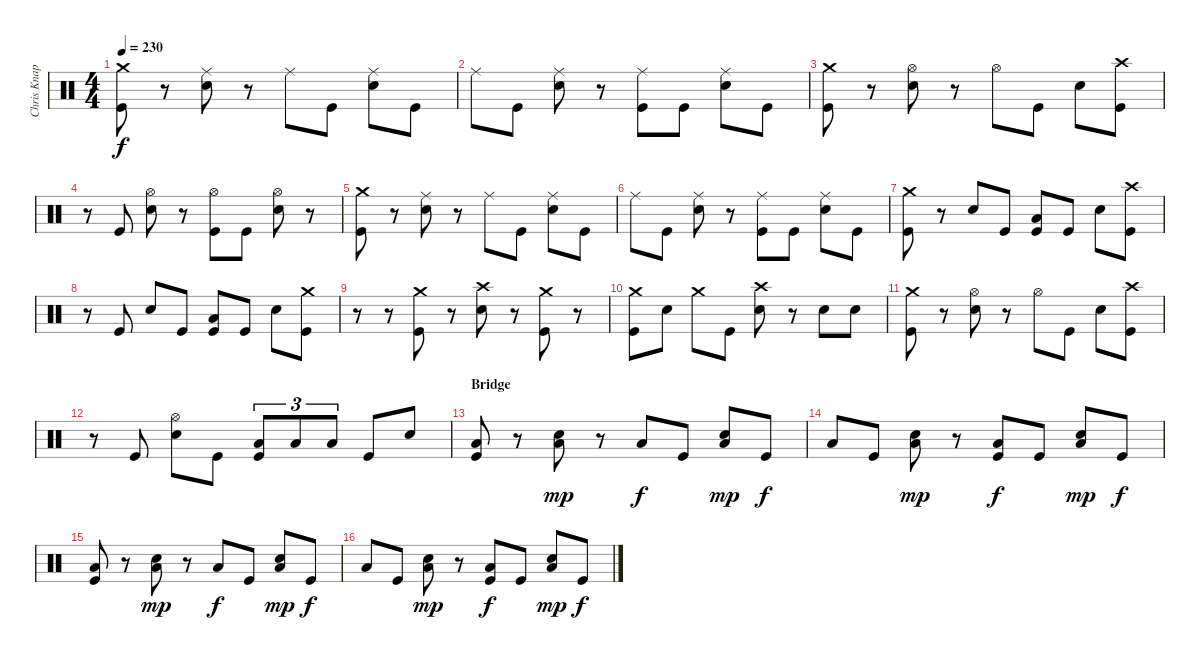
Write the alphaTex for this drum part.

\track ("Chris Knapp" "Chris Knap") {instrument percussion}
\staff {score}
\articulation defaults
\ts (4 4)
\tempo 230
\clef neutral
\ks c
("Crash medium (hit)" "Kick (hit)").8{dy f} r.8 ("Ride (middle)" "Electric Snare (hit)").8 r.8 "Ride (middle)".8 "Kick (hit)".8 ("Ride (middle)" "Electric Snare (hit)").8 "Kick (hit)".8 |
"Ride (middle)".8 "Kick (hit)".8 ("Ride (middle)" "Electric Snare (hit)").8 r.8 ("Ride (middle)" "Kick (hit)").8 "Kick (hit)".8 ("Ride (middle)" "Electric Snare (hit)").8 "Kick (hit)".8 |
("Crash medium (hit)" "Kick (hit)").8 r.8 ("Hi-Hat (open)" "Electric Snare (hit)").8 r.8 "Hi-Hat (open)".8 "Kick (hit)".8 "Electric Snare (hit)".8 ("Crash high (hit)" "Kick (hit)").8 |
r.8 "Kick (hit)".8 ("Hi-Hat (open)" "Electric Snare (hit)").8 r.8 ("Hi-Hat (open)" "Kick (hit)").8 "Kick (hit)".8 ("Hi-Hat (open)" "Electric Snare (hit)").8 r.8 |
("Crash medium (hit)" "Kick (hit)").8 r.8 ("Ride (middle)" "Electric Snare (hit)").8 r.8 "Ride (middle)".8 "Kick (hit)".8 ("Ride (middle)" "Electric Snare (hit)").8 "Kick (hit)".8 |
"Ride (middle)".8 "Kick (hit)".8 ("Ride (middle)" "Electric Snare (hit)").8 r.8 ("Ride (middle)" "Kick (hit)").8 "Kick (hit)".8 ("Ride (middle)" "Electric Snare (hit)").8 "Kick (hit)".8 |
("Crash medium (hit)" "Kick (hit)").8 r.8 "Electric Snare (hit)".8 "Kick (hit)".8 ("Low Floor Tom (hit)" "Kick (hit)").8 "Kick (hit)".8 "Electric Snare (hit)".8 ("Crash high (hit)" "Kick (hit)").8 |
r.8 "Kick (hit)".8 "Electric Snare (hit)".8 "Kick (hit)".8 ("Low Floor Tom (hit)" "Kick (hit)").8 "Kick (hit)".8 "Electric Snare (hit)".8 ("Crash medium (hit)" "Kick (hit)").8 |
r.8 r.8 ("Crash medium (hit)" "Kick (hit)").8 r.8 ("Crash high (hit)" "Electric Snare (hit)").8 r.8 ("Crash medium (hit)" "Kick (hit)").8 r.8 |
("Crash medium (hit)" "Kick (hit)").8 "Electric Snare (hit)".8 "Crash medium (hit)".8 "Kick (hit)".8 ("Crash high (hit)" "Electric Snare (hit)").8 r.8 "Electric Snare (hit)".8 "Electric Snare (hit)".8 |
("Crash medium (hit)" "Kick (hit)").8 r.8 ("Hi-Hat (open)" "Electric Snare (hit)").8 r.8 "Hi-Hat (open)".8 "Kick (hit)".8 "Electric Snare (hit)".8 ("Crash high (hit)" "Kick (hit)").8 |
r.8 "Kick (hit)".8 ("Hi-Hat (open)" "Electric Snare (hit)").8 "Kick (hit)".8 ("Low Floor Tom (hit)" "Kick (hit)").8{tu (3 2)} "Low Floor Tom (hit)".8{tu (3 2)} "Low Floor Tom (hit)".8{tu (3 2)} "Kick (hit)".8 "Electric Snare (hit)".8 |
\section ("" "Bridge")
("Low Floor Tom (hit)" "Kick (hit)").8 r.8 ("Electric Snare (hit)" "Low Floor Tom (hit)").8{dy mp} r.8 "Low Floor Tom (hit)".8{dy f} "Kick (hit)".8 ("Electric Snare (hit)" "Low Floor Tom (hit)").8{dy mp} "Kick (hit)".8{dy f} |
"Low Floor Tom (hit)".8 "Kick (hit)".8 ("Electric Snare (hit)" "Low Floor Tom (hit)").8{dy mp} r.8 ("Low Floor Tom (hit)" "Kick (hit)").8{dy f} "Kick (hit)".8 ("Electric Snare (hit)" "Low Floor Tom (hit)").8{dy mp} "Kick (hit)".8{dy f} |
("Low Floor Tom (hit)" "Kick (hit)").8 r.8 ("Electric Snare (hit)" "Low Floor Tom (hit)").8{dy mp} r.8 "Low Floor Tom (hit)".8{dy f} "Kick (hit)".8 ("Electric Snare (hit)" "Low Floor Tom (hit)").8{dy mp} "Kick (hit)".8{dy f} |
"Low Floor Tom (hit)".8 "Kick (hit)".8 ("Electric Snare (hit)" "Low Floor Tom (hit)").8{dy mp} r.8 ("Low Floor Tom (hit)" "Kick (hit)").8{dy f} "Kick (hit)".8 ("Electric Snare (hit)" "Low Floor Tom (hit)").8{dy mp} "Kick (hit)".8{dy f}
